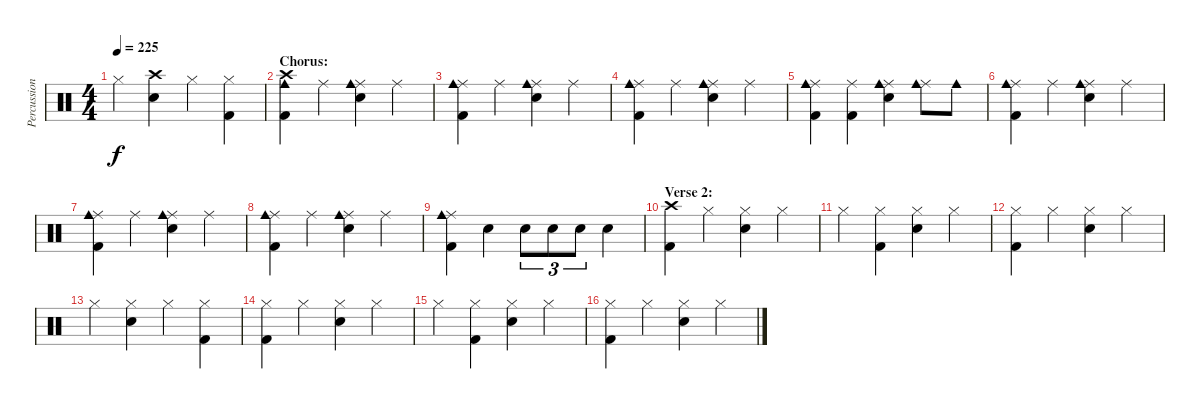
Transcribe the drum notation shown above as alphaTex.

\track ("Percussion" "Percussion") {instrument percussion}
\staff {score}
\articulation defaults
\ts (4 4)
\tempo 225
\clef neutral
\ks c "Hi-Hat (closed)".4{dy f}
("Crash high (hit)" "Electric Snare (hit)").4 "Hi-Hat (closed)".4 ("Hi-Hat (closed)" "Kick (hit) 2").4 |
\section ("" "Chorus:")
("Crash high (hit)" "Cowbell medium (hit)" "Kick (hit) 2").4 "Ride (middle)".4 ("Ride (middle)" "Cowbell medium (hit)" "Electric Snare (hit)").4 "Ride (middle)".4 |
("Ride (middle)" "Cowbell medium (hit)" "Kick (hit) 2").4 "Ride (middle)".4 ("Ride (middle)" "Cowbell medium (hit)" "Electric Snare (hit)").4 "Ride (middle)".4 |
("Ride (middle)" "Cowbell medium (hit)" "Kick (hit) 2").4 "Ride (middle)".4 ("Ride (middle)" "Cowbell medium (hit)" "Electric Snare (hit)").4 "Ride (middle)".4 |
("Ride (middle)" "Cowbell medium (hit)" "Kick (hit) 2").4 ("Ride (middle)" "Kick (hit) 2").4 ("Ride (middle)" "Cowbell medium (hit)" "Electric Snare (hit)").4 ("Ride (middle)" "Cowbell medium (hit)").8 "Cowbell medium (hit)".8 |
("Ride (middle)" "Cowbell medium (hit)" "Kick (hit) 2").4 "Ride (middle)".4 ("Ride (middle)" "Cowbell medium (hit)" "Electric Snare (hit)").4 "Ride (middle)".4 |
("Ride (middle)" "Cowbell medium (hit)" "Kick (hit) 2").4 "Ride (middle)".4 ("Ride (middle)" "Cowbell medium (hit)" "Electric Snare (hit)").4 "Ride (middle)".4 |
("Ride (middle)" "Cowbell medium (hit)" "Kick (hit) 2").4 "Ride (middle)".4 ("Ride (middle)" "Cowbell medium (hit)" "Electric Snare (hit)").4 "Ride (middle)".4 |
("Ride (middle)" "Cowbell medium (hit)" "Kick (hit) 2").4 "Electric Snare (hit)".4 "Electric Snare (hit)".8{tu (3 2)} "Electric Snare (hit)".8{tu (3 2)} "Electric Snare (hit)".8{tu (3 2)} "Electric Snare (hit)".4 |
\section ("" "Verse 2:")
("Crash high (hit)" "Kick (hit) 2").4 "Hi-Hat (closed)".4 ("Hi-Hat (closed)" "Electric Snare (hit)").4 "Hi-Hat (closed)".4 |
"Hi-Hat (closed)".4 ("Hi-Hat (closed)" "Kick (hit) 2").4 ("Hi-Hat (closed)" "Electric Snare (hit)").4 "Hi-Hat (closed)".4 |
("Hi-Hat (closed)" "Kick (hit) 2").4 "Hi-Hat (closed)".4 ("Hi-Hat (closed)" "Electric Snare (hit)").4 "Hi-Hat (closed)".4 |
"Hi-Hat (closed)".4 ("Hi-Hat (closed)" "Electric Snare (hit)").4 "Hi-Hat (closed)".4 ("Hi-Hat (closed)" "Kick (hit) 2").4 |
("Hi-Hat (closed)" "Kick (hit) 2").4 "Hi-Hat (closed)".4 ("Hi-Hat (closed)" "Electric Snare (hit)").4 "Hi-Hat (closed)".4 |
"Hi-Hat (closed)".4 ("Hi-Hat (closed)" "Kick (hit) 2").4 ("Hi-Hat (closed)" "Electric Snare (hit)").4 "Hi-Hat (closed)".4 |
("Hi-Hat (closed)" "Kick (hit) 2").4 "Hi-Hat (closed)".4 ("Hi-Hat (closed)" "Electric Snare (hit)").4 "Hi-Hat (closed)".4
